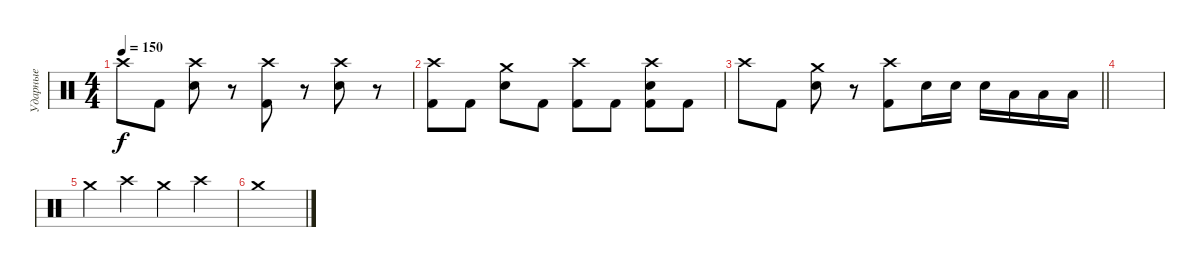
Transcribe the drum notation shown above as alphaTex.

\track ("Ударные" "Ударные") {instrument percussion}
\staff {score}
\articulation defaults
\ts (4 4)
\tempo 150
\clef neutral
\ks c "Crash high (hit)".8{dy f} "Kick (hit) 2".8
("Crash high (hit)" "Snare (hit) 2").8 r.8 ("Crash high (hit)" "Kick (hit) 2").8 r.8 ("Crash high (hit)" "Snare (hit) 2").8 r.8 |
("Crash high (hit)" "Kick (hit) 2").8 "Kick (hit) 2".8 ("Crash medium (hit)" "Snare (hit) 2").8 "Kick (hit) 2".8 ("Crash high (hit)" "Kick (hit) 2").8 "Kick (hit) 2".8 ("Crash high (hit)" "Snare (hit) 2" "Kick (hit) 2").8 "Kick (hit) 2".8 |
\barLineRight lightlight "Crash high (hit)".8 "Kick (hit) 2".8
("Crash medium (hit)" "Snare (hit) 2").8 r.8 ("Crash high (hit)" "Kick (hit) 2").8 "Snare (hit) 2".16 "Snare (hit) 2".16 "Snare (hit) 2".16 "Low Floor Tom (hit)".16 "Low Floor Tom (hit)".16 "Low Floor Tom (hit)".16 |
|
"Crash medium (hit)".4 "Crash high (hit)".4 "Crash medium (hit)".4 "Crash high (hit)".4 |
"Crash medium (hit)".1
